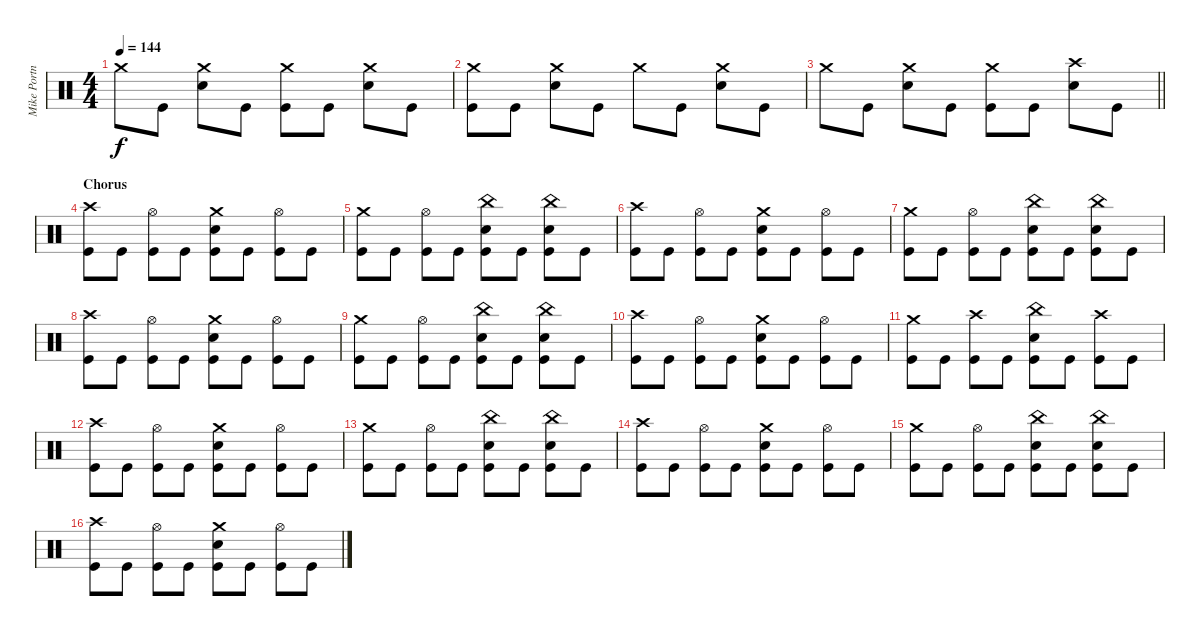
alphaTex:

\track ("Mike Portnoy" "Mike Portn") {instrument percussion}
\staff {score}
\articulation defaults
\ts (4 4)
\tempo 144
\clef neutral
\ks c "Crash medium (hit)".8{dy f} "Kick (hit)".8
("Crash medium (hit)" "Electric Snare (hit)").8 "Kick (hit)".8 ("Crash medium (hit)" "Kick (hit)").8 "Kick (hit)".8 ("Crash medium (hit)" "Electric Snare (hit)").8 "Kick (hit)".8 |
("Crash medium (hit)" "Kick (hit)").8 "Kick (hit)".8 ("Crash medium (hit)" "Electric Snare (hit)").8 "Kick (hit)".8 "Crash medium (hit)".8 "Kick (hit)".8 ("Crash medium (hit)" "Electric Snare (hit)").8 "Kick (hit)".8 |
\barLineRight lightlight "Crash medium (hit)".8 "Kick (hit)".8
("Crash medium (hit)" "Electric Snare (hit)").8 "Kick (hit)".8 ("Crash medium (hit)" "Kick (hit)").8 "Kick (hit)".8 ("Crash high (hit)" "Electric Snare (hit)").8 "Kick (hit)".8 |
\section ("" "Chorus")
("Crash high (hit)" "Kick (hit)").8 "Kick (hit)".8 ("Hi-Hat (open)" "Kick (hit)").8 "Kick (hit)".8 ("Crash medium (hit)" "Electric Snare (hit)" "Kick (hit)").8 "Kick (hit)".8 ("Hi-Hat (open)" "Kick (hit)").8 "Kick (hit)".8 |
("Crash medium (hit)" "Kick (hit)").8 "Kick (hit)".8 ("Hi-Hat (open)" "Kick (hit)").8 "Kick (hit)".8 ("China (hit)" "Electric Snare (hit)" "Kick (hit)").8 "Kick (hit)".8 ("China (hit)" "Electric Snare (hit)" "Kick (hit)").8 "Kick (hit)".8 |
("Crash high (hit)" "Kick (hit)").8 "Kick (hit)".8 ("Hi-Hat (open)" "Kick (hit)").8 "Kick (hit)".8 ("Crash medium (hit)" "Electric Snare (hit)" "Kick (hit)").8 "Kick (hit)".8 ("Hi-Hat (open)" "Kick (hit)").8 "Kick (hit)".8 |
("Crash medium (hit)" "Kick (hit)").8 "Kick (hit)".8 ("Hi-Hat (open)" "Kick (hit)").8 "Kick (hit)".8 ("China (hit)" "Electric Snare (hit)" "Kick (hit)").8 "Kick (hit)".8 ("China (hit)" "Electric Snare (hit)" "Kick (hit)").8 "Kick (hit)".8 |
("Crash high (hit)" "Kick (hit)").8 "Kick (hit)".8 ("Hi-Hat (open)" "Kick (hit)").8 "Kick (hit)".8 ("Crash medium (hit)" "Electric Snare (hit)" "Kick (hit)").8 "Kick (hit)".8 ("Hi-Hat (open)" "Kick (hit)").8 "Kick (hit)".8 |
("Crash medium (hit)" "Kick (hit)").8 "Kick (hit)".8 ("Hi-Hat (open)" "Kick (hit)").8 "Kick (hit)".8 ("China (hit)" "Electric Snare (hit)" "Kick (hit)").8 "Kick (hit)".8 ("China (hit)" "Electric Snare (hit)" "Kick (hit)").8 "Kick (hit)".8 |
("Crash high (hit)" "Kick (hit)").8 "Kick (hit)".8 ("Hi-Hat (open)" "Kick (hit)").8 "Kick (hit)".8 ("Crash medium (hit)" "Electric Snare (hit)" "Kick (hit)").8 "Kick (hit)".8 ("Hi-Hat (open)" "Kick (hit)").8 "Kick (hit)".8 |
("Crash medium (hit)" "Kick (hit)").8 "Kick (hit)".8 ("Crash high (hit)" "Kick (hit)").8 "Kick (hit)".8 ("China (hit)" "Electric Snare (hit)" "Kick (hit)").8 "Kick (hit)".8 ("Crash high (hit)" "Kick (hit)").8 "Kick (hit)".8 |
("Crash high (hit)" "Kick (hit)").8 "Kick (hit)".8 ("Hi-Hat (open)" "Kick (hit)").8 "Kick (hit)".8 ("Crash medium (hit)" "Electric Snare (hit)" "Kick (hit)").8 "Kick (hit)".8 ("Hi-Hat (open)" "Kick (hit)").8 "Kick (hit)".8 |
("Crash medium (hit)" "Kick (hit)").8 "Kick (hit)".8 ("Hi-Hat (open)" "Kick (hit)").8 "Kick (hit)".8 ("China (hit)" "Electric Snare (hit)" "Kick (hit)").8 "Kick (hit)".8 ("China (hit)" "Electric Snare (hit)" "Kick (hit)").8 "Kick (hit)".8 |
("Crash high (hit)" "Kick (hit)").8 "Kick (hit)".8 ("Hi-Hat (open)" "Kick (hit)").8 "Kick (hit)".8 ("Crash medium (hit)" "Electric Snare (hit)" "Kick (hit)").8 "Kick (hit)".8 ("Hi-Hat (open)" "Kick (hit)").8 "Kick (hit)".8 |
("Crash medium (hit)" "Kick (hit)").8 "Kick (hit)".8 ("Hi-Hat (open)" "Kick (hit)").8 "Kick (hit)".8 ("China (hit)" "Electric Snare (hit)" "Kick (hit)").8 "Kick (hit)".8 ("China (hit)" "Electric Snare (hit)" "Kick (hit)").8 "Kick (hit)".8 |
("Crash high (hit)" "Kick (hit)").8 "Kick (hit)".8 ("Hi-Hat (open)" "Kick (hit)").8 "Kick (hit)".8 ("Crash medium (hit)" "Electric Snare (hit)" "Kick (hit)").8 "Kick (hit)".8 ("Hi-Hat (open)" "Kick (hit)").8 "Kick (hit)".8
